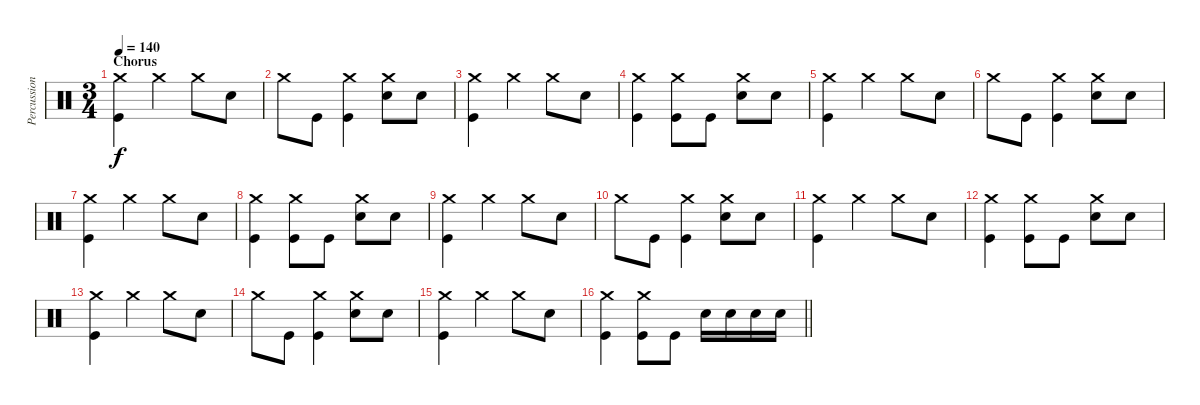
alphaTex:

\track ("Percussion" "Percussion") {instrument percussion}
\staff {score}
\articulation defaults
\ts (3 4)
\section ("" "Chorus")
\tempo 140
\clef neutral
\ks c
("Crash medium (hit)" "Kick (hit)").4{dy f} "Crash medium (hit)".4 "Crash medium (hit)".8 "Electric Snare (hit)".8 |
"Crash medium (hit)".8 "Kick (hit)".8 ("Crash medium (hit)" "Kick (hit)").4 ("Crash medium (hit)" "Electric Snare (hit)").8 "Electric Snare (hit)".8 |
("Crash medium (hit)" "Kick (hit)").4 "Crash medium (hit)".4 "Crash medium (hit)".8 "Electric Snare (hit)".8 |
("Crash medium (hit)" "Kick (hit)").4 ("Crash medium (hit)" "Kick (hit)").8 "Kick (hit)".8 ("Crash medium (hit)" "Electric Snare (hit)").8 "Electric Snare (hit)".8 |
("Crash medium (hit)" "Kick (hit)").4 "Crash medium (hit)".4 "Crash medium (hit)".8 "Electric Snare (hit)".8 |
"Crash medium (hit)".8 "Kick (hit)".8 ("Crash medium (hit)" "Kick (hit)").4 ("Crash medium (hit)" "Electric Snare (hit)").8 "Electric Snare (hit)".8 |
("Crash medium (hit)" "Kick (hit)").4 "Crash medium (hit)".4 "Crash medium (hit)".8 "Electric Snare (hit)".8 |
("Crash medium (hit)" "Kick (hit)").4 ("Crash medium (hit)" "Kick (hit)").8 "Kick (hit)".8 ("Crash medium (hit)" "Electric Snare (hit)").8 "Electric Snare (hit)".8 |
("Crash medium (hit)" "Kick (hit)").4 "Crash medium (hit)".4 "Crash medium (hit)".8 "Electric Snare (hit)".8 |
"Crash medium (hit)".8 "Kick (hit)".8 ("Crash medium (hit)" "Kick (hit)").4 ("Crash medium (hit)" "Electric Snare (hit)").8 "Electric Snare (hit)".8 |
("Crash medium (hit)" "Kick (hit)").4 "Crash medium (hit)".4 "Crash medium (hit)".8 "Electric Snare (hit)".8 |
("Crash medium (hit)" "Kick (hit)").4 ("Crash medium (hit)" "Kick (hit)").8 "Kick (hit)".8 ("Crash medium (hit)" "Electric Snare (hit)").8 "Electric Snare (hit)".8 |
("Crash medium (hit)" "Kick (hit)").4 "Crash medium (hit)".4 "Crash medium (hit)".8 "Electric Snare (hit)".8 |
"Crash medium (hit)".8 "Kick (hit)".8 ("Crash medium (hit)" "Kick (hit)").4 ("Crash medium (hit)" "Electric Snare (hit)").8 "Electric Snare (hit)".8 |
("Crash medium (hit)" "Kick (hit)").4 "Crash medium (hit)".4 "Crash medium (hit)".8 "Electric Snare (hit)".8 |
\barLineRight lightlight
("Crash medium (hit)" "Kick (hit)").4 ("Crash medium (hit)" "Kick (hit)").8 "Kick (hit)".8 "Electric Snare (hit)".16 "Electric Snare (hit)".16 "Electric Snare (hit)".16 "Electric Snare (hit)".16
